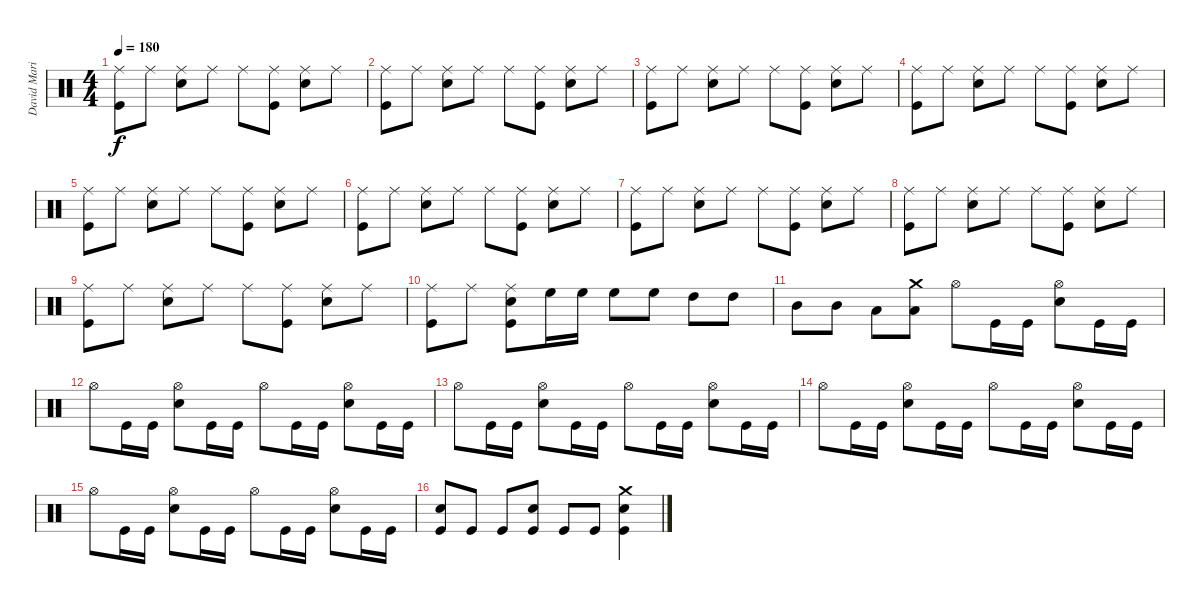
\track ("David Marinero" "David Mari") {instrument percussion}
\staff {score}
\articulation defaults
\ts (4 4)
\tempo 180
\clef neutral
\ks c
("Ride (middle)" "Kick (hit)").8{dy f} "Ride (middle)".8 ("Ride (middle)" "Snare (hit) 2").8 "Ride (middle)".8 "Ride (middle)".8 ("Ride (middle)" "Kick (hit)").8 ("Ride (middle)" "Snare (hit) 2").8 "Ride (middle)".8 |
("Ride (middle)" "Kick (hit)").8 "Ride (middle)".8 ("Ride (middle)" "Snare (hit) 2").8 "Ride (middle)".8 "Ride (middle)".8 ("Ride (middle)" "Kick (hit)").8 ("Ride (middle)" "Snare (hit) 2").8 "Ride (middle)".8 |
("Ride (middle)" "Kick (hit)").8 "Ride (middle)".8 ("Ride (middle)" "Snare (hit) 2").8 "Ride (middle)".8 "Ride (middle)".8 ("Ride (middle)" "Kick (hit)").8 ("Ride (middle)" "Snare (hit) 2").8 "Ride (middle)".8 |
("Ride (middle)" "Kick (hit)").8 "Ride (middle)".8 ("Ride (middle)" "Snare (hit) 2").8 "Ride (middle)".8 "Ride (middle)".8 ("Ride (middle)" "Kick (hit)").8 ("Ride (middle)" "Snare (hit) 2").8 "Ride (middle)".8 |
("Ride (middle)" "Kick (hit)").8 "Ride (middle)".8 ("Ride (middle)" "Snare (hit) 2").8 "Ride (middle)".8 "Ride (middle)".8 ("Ride (middle)" "Kick (hit)").8 ("Ride (middle)" "Snare (hit) 2").8 "Ride (middle)".8 |
("Ride (middle)" "Kick (hit)").8 "Ride (middle)".8 ("Ride (middle)" "Snare (hit) 2").8 "Ride (middle)".8 "Ride (middle)".8 ("Ride (middle)" "Kick (hit)").8 ("Ride (middle)" "Snare (hit) 2").8 "Ride (middle)".8 |
("Ride (middle)" "Kick (hit)").8 "Ride (middle)".8 ("Ride (middle)" "Snare (hit) 2").8 "Ride (middle)".8 "Ride (middle)".8 ("Ride (middle)" "Kick (hit)").8 ("Ride (middle)" "Snare (hit) 2").8 "Ride (middle)".8 |
("Ride (middle)" "Kick (hit)").8 "Ride (middle)".8 ("Ride (middle)" "Snare (hit) 2").8 "Ride (middle)".8 "Ride (middle)".8 ("Ride (middle)" "Kick (hit)").8 ("Ride (middle)" "Snare (hit) 2").8 "Ride (middle)".8 |
("Ride (middle)" "Kick (hit)").8 "Ride (middle)".8 ("Ride (middle)" "Snare (hit) 2").8 "Ride (middle)".8 "Ride (middle)".8 ("Ride (middle)" "Kick (hit)").8 ("Ride (middle)" "Snare (hit) 2").8 "Ride (middle)".8 |
("Ride (middle)" "Kick (hit)").8 "Ride (middle)".8 ("Ride (middle)" "Snare (hit) 2" "Kick (hit)").8 "High Floor Tom (hit)".16 "High Floor Tom (hit)".16 "High Floor Tom (hit)".8 "High Floor Tom (hit)".8 "High Tom (hit)".8 "High Tom (hit)".8 |
"Mid Tom (hit)".8 "Mid Tom (hit)".8 "Low Tom (hit)".8 ("Crash medium (hit)" "Low Tom (hit)").8 "Hi-Hat (open)".8 "Kick (hit)".16 "Kick (hit)".16 ("Hi-Hat (open)" "Snare (hit) 2").8 "Kick (hit)".16 "Kick (hit)".16 |
"Hi-Hat (open)".8 "Kick (hit)".16 "Kick (hit)".16 ("Hi-Hat (open)" "Snare (hit) 2").8 "Kick (hit)".16 "Kick (hit)".16 "Hi-Hat (open)".8 "Kick (hit)".16 "Kick (hit)".16 ("Hi-Hat (open)" "Snare (hit) 2").8 "Kick (hit)".16 "Kick (hit)".16 |
"Hi-Hat (open)".8 "Kick (hit)".16 "Kick (hit)".16 ("Hi-Hat (open)" "Snare (hit) 2").8 "Kick (hit)".16 "Kick (hit)".16 "Hi-Hat (open)".8 "Kick (hit)".16 "Kick (hit)".16 ("Hi-Hat (open)" "Snare (hit) 2").8 "Kick (hit)".16 "Kick (hit)".16 |
"Hi-Hat (open)".8 "Kick (hit)".16 "Kick (hit)".16 ("Hi-Hat (open)" "Snare (hit) 2").8 "Kick (hit)".16 "Kick (hit)".16 "Hi-Hat (open)".8 "Kick (hit)".16 "Kick (hit)".16 ("Hi-Hat (open)" "Snare (hit) 2").8 "Kick (hit)".16 "Kick (hit)".16 |
"Hi-Hat (open)".8 "Kick (hit)".16 "Kick (hit)".16 ("Hi-Hat (open)" "Snare (hit) 2").8 "Kick (hit)".16 "Kick (hit)".16 "Hi-Hat (open)".8 "Kick (hit)".16 "Kick (hit)".16 ("Hi-Hat (open)" "Snare (hit) 2").8 "Kick (hit)".16 "Kick (hit)".16 |
("Snare (hit) 2" "Kick (hit)").8 "Kick (hit)".8 "Kick (hit)".8 ("Snare (hit) 2" "Kick (hit)").8 "Kick (hit)".8 "Kick (hit)".8 ("Crash medium (hit)" "Snare (hit) 2" "Kick (hit)").4
